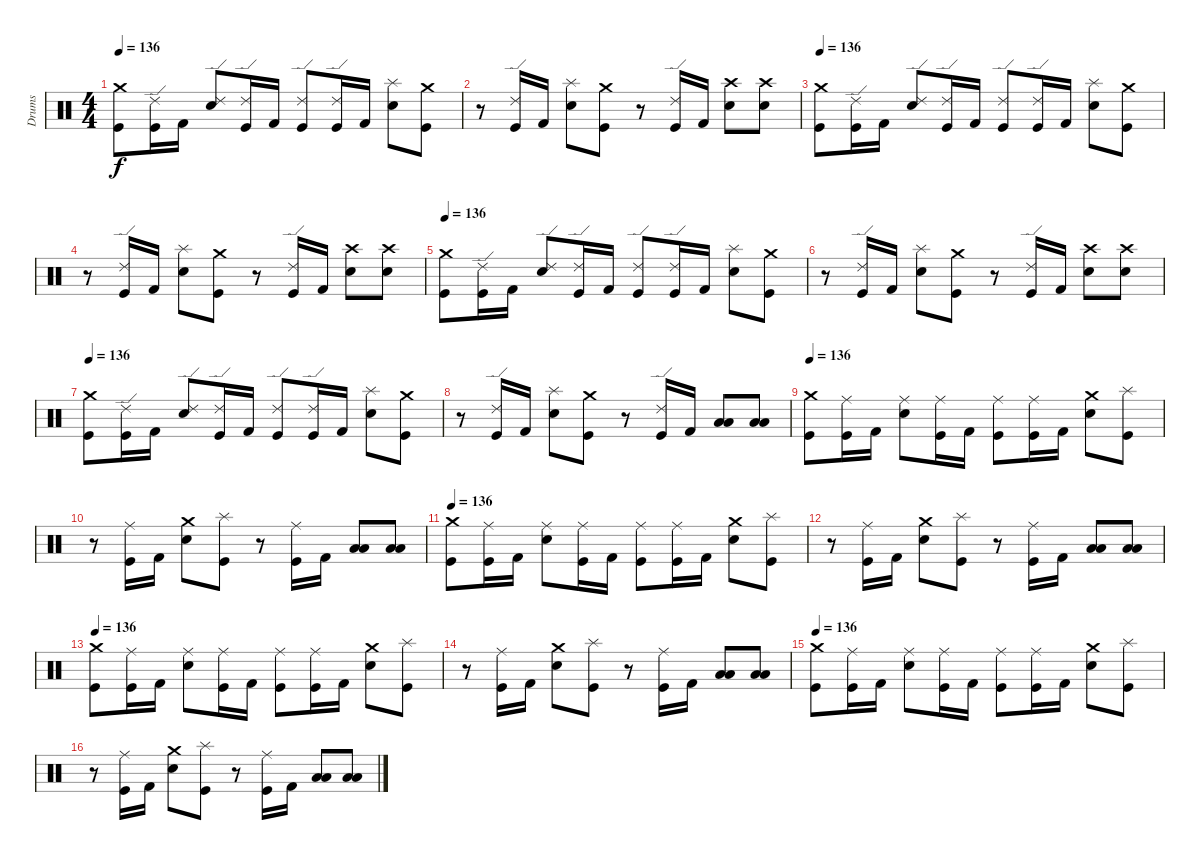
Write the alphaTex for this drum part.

\track ("Drums" "Drums") {instrument percussion}
\staff {score}
\articulation defaults
\ts (4 4)
\tempo 136
\clef neutral
\ks c
("Crash medium (hit)" "Kick (hit)").8{dy f} ("Ride (edge) 2" "Kick (hit)").16 "Kick (hit) 2".16 ("Ride (edge) 2" "Electric Snare (hit)").8 ("Ride (edge) 2" "Kick (hit)").16 "Kick (hit) 2".16 ("Ride (edge) 2" "Kick (hit)").8 ("Ride (edge) 2" "Kick (hit)").16 "Kick (hit) 2".16 ("Splash (hit)" "Electric Snare (hit)").8 ("Crash medium (hit)" "Kick (hit)").8 |
r.8 ("Ride (edge) 2" "Kick (hit)").16 "Kick (hit) 2".16 ("Splash (hit)" "Electric Snare (hit)").8 ("Crash medium (hit)" "Kick (hit)").8 r.8 ("Ride (edge) 2" "Kick (hit)").16 "Kick (hit) 2".16 ("Crash high (hit)" "Electric Snare (hit)").8 ("Crash high (hit)" "Electric Snare (hit)").8 |
\tempo 136
("Crash medium (hit)" "Kick (hit)").8 ("Ride (edge) 2" "Kick (hit)").16 "Kick (hit) 2".16 ("Ride (edge) 2" "Electric Snare (hit)").8 ("Ride (edge) 2" "Kick (hit)").16 "Kick (hit) 2".16 ("Ride (edge) 2" "Kick (hit)").8 ("Ride (edge) 2" "Kick (hit)").16 "Kick (hit) 2".16 ("Splash (hit)" "Electric Snare (hit)").8 ("Crash medium (hit)" "Kick (hit)").8 |
r.8 ("Ride (edge) 2" "Kick (hit)").16 "Kick (hit) 2".16 ("Splash (hit)" "Electric Snare (hit)").8 ("Crash medium (hit)" "Kick (hit)").8 r.8 ("Ride (edge) 2" "Kick (hit)").16 "Kick (hit) 2".16 ("Crash high (hit)" "Electric Snare (hit)").8 ("Crash high (hit)" "Electric Snare (hit)").8 |
\tempo 136
("Crash medium (hit)" "Kick (hit)").8 ("Ride (edge) 2" "Kick (hit)").16 "Kick (hit) 2".16 ("Ride (edge) 2" "Electric Snare (hit)").8 ("Ride (edge) 2" "Kick (hit)").16 "Kick (hit) 2".16 ("Ride (edge) 2" "Kick (hit)").8 ("Ride (edge) 2" "Kick (hit)").16 "Kick (hit) 2".16 ("Splash (hit)" "Electric Snare (hit)").8 ("Crash medium (hit)" "Kick (hit)").8 |
r.8 ("Ride (edge) 2" "Kick (hit)").16 "Kick (hit) 2".16 ("Splash (hit)" "Electric Snare (hit)").8 ("Crash medium (hit)" "Kick (hit)").8 r.8 ("Ride (edge) 2" "Kick (hit)").16 "Kick (hit) 2".16 ("Crash high (hit)" "Electric Snare (hit)").8 ("Crash high (hit)" "Electric Snare (hit)").8 |
\tempo 136
("Crash medium (hit)" "Kick (hit)").8 ("Ride (edge) 2" "Kick (hit)").16 "Kick (hit) 2".16 ("Ride (edge) 2" "Electric Snare (hit)").8 ("Ride (edge) 2" "Kick (hit)").16 "Kick (hit) 2".16 ("Ride (edge) 2" "Kick (hit)").8 ("Ride (edge) 2" "Kick (hit)").16 "Kick (hit) 2".16 ("Splash (hit)" "Electric Snare (hit)").8 ("Crash medium (hit)" "Kick (hit)").8 |
r.8 ("Ride (edge) 2" "Kick (hit)").16 "Kick (hit) 2".16 ("Splash (hit)" "Electric Snare (hit)").8 ("Crash medium (hit)" "Kick (hit)").8 r.8 ("Ride (edge) 2" "Kick (hit)").16 "Kick (hit) 2".16 ("Low Tom (hit)" "Low Floor Tom (hit)").8 ("Low Tom (hit)" "Low Floor Tom (hit)").8 |
\tempo 136
("Crash medium (hit)" "Kick (hit)").8 ("Ride (middle)" "Kick (hit)").16 "Kick (hit) 2".16 ("Ride (middle)" "Electric Snare (hit)").8 ("Ride (middle)" "Kick (hit)").16 "Kick (hit) 2".16 ("Ride (middle)" "Kick (hit)").8 ("Ride (middle)" "Kick (hit)").16 "Kick (hit) 2".16 ("Crash medium (hit)" "Electric Snare (hit)").8 ("Splash (hit)" "Kick (hit)").8 |
r.8 ("Ride (middle)" "Kick (hit)").16 "Kick (hit) 2".16 ("Crash medium (hit)" "Electric Snare (hit)").8 ("Splash (hit)" "Kick (hit)").8 r.8 ("Ride (middle)" "Kick (hit)").16 "Kick (hit) 2".16 ("Low Tom (hit)" "Low Floor Tom (hit)").8 ("Low Tom (hit)" "Low Floor Tom (hit)").8 |
\tempo 136
("Crash medium (hit)" "Kick (hit)").8 ("Ride (middle)" "Kick (hit)").16 "Kick (hit) 2".16 ("Ride (middle)" "Electric Snare (hit)").8 ("Ride (middle)" "Kick (hit)").16 "Kick (hit) 2".16 ("Ride (middle)" "Kick (hit)").8 ("Ride (middle)" "Kick (hit)").16 "Kick (hit) 2".16 ("Crash medium (hit)" "Electric Snare (hit)").8 ("Splash (hit)" "Kick (hit)").8 |
r.8 ("Ride (middle)" "Kick (hit)").16 "Kick (hit) 2".16 ("Crash medium (hit)" "Electric Snare (hit)").8 ("Splash (hit)" "Kick (hit)").8 r.8 ("Ride (middle)" "Kick (hit)").16 "Kick (hit) 2".16 ("Low Tom (hit)" "Low Floor Tom (hit)").8 ("Low Tom (hit)" "Low Floor Tom (hit)").8 |
\tempo 136
("Crash medium (hit)" "Kick (hit)").8 ("Ride (middle)" "Kick (hit)").16 "Kick (hit) 2".16 ("Ride (middle)" "Electric Snare (hit)").8 ("Ride (middle)" "Kick (hit)").16 "Kick (hit) 2".16 ("Ride (middle)" "Kick (hit)").8 ("Ride (middle)" "Kick (hit)").16 "Kick (hit) 2".16 ("Crash medium (hit)" "Electric Snare (hit)").8 ("Splash (hit)" "Kick (hit)").8 |
r.8 ("Ride (middle)" "Kick (hit)").16 "Kick (hit) 2".16 ("Crash medium (hit)" "Electric Snare (hit)").8 ("Splash (hit)" "Kick (hit)").8 r.8 ("Ride (middle)" "Kick (hit)").16 "Kick (hit) 2".16 ("Low Tom (hit)" "Low Floor Tom (hit)").8 ("Low Tom (hit)" "Low Floor Tom (hit)").8 |
\tempo 136
("Crash medium (hit)" "Kick (hit)").8 ("Ride (middle)" "Kick (hit)").16 "Kick (hit) 2".16 ("Ride (middle)" "Electric Snare (hit)").8 ("Ride (middle)" "Kick (hit)").16 "Kick (hit) 2".16 ("Ride (middle)" "Kick (hit)").8 ("Ride (middle)" "Kick (hit)").16 "Kick (hit) 2".16 ("Crash medium (hit)" "Electric Snare (hit)").8 ("Splash (hit)" "Kick (hit)").8 |
r.8 ("Ride (middle)" "Kick (hit)").16 "Kick (hit) 2".16 ("Crash medium (hit)" "Electric Snare (hit)").8 ("Splash (hit)" "Kick (hit)").8 r.8 ("Ride (middle)" "Kick (hit)").16 "Kick (hit) 2".16 ("Low Tom (hit)" "Low Floor Tom (hit)").8 ("Low Tom (hit)" "Low Floor Tom (hit)").8
